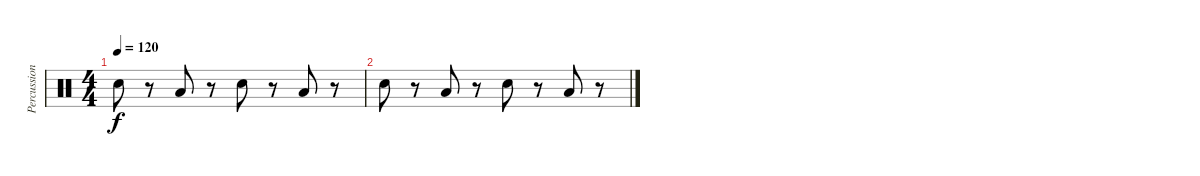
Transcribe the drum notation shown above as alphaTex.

\track ("Percussion" "Percussion") {instrument percussion}
\staff {score}
\articulation defaults
\ts (4 4)
\tempo 120
\clef neutral
\ks c "Electric Snare (hit)".8{dy f}
r.8 "Low Floor Tom (hit)".8 r.8 "Electric Snare (hit)".8 r.8 "Low Floor Tom (hit)".8 r.8 |
"Electric Snare (hit)".8 r.8 "Low Floor Tom (hit)".8 r.8 "Electric Snare (hit)".8 r.8 "Low Floor Tom (hit)".8 r.8
